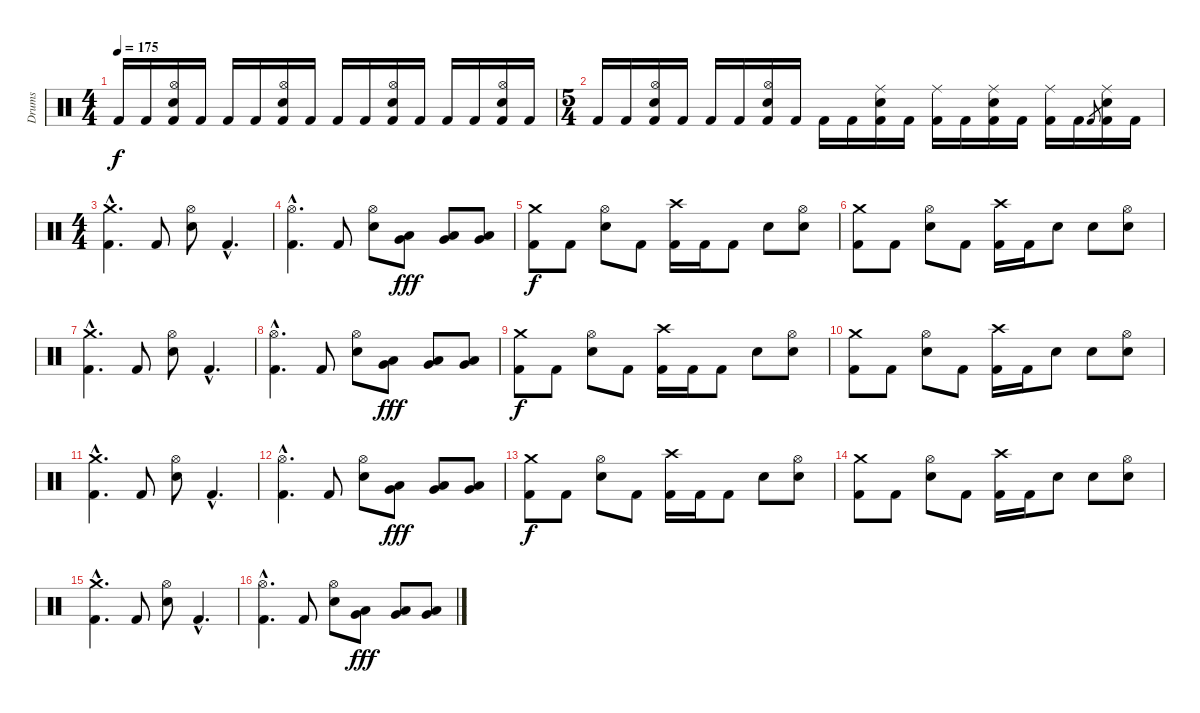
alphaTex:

\track ("Drums" "Drums") {instrument percussion}
\staff {score}
\articulation defaults
\ts (4 4)
\tempo 175
\clef neutral
\ks c "Kick (hit) 2".16{dy f} "Kick (hit) 2".16
("Hi-Hat (open)" "Electric Snare (hit)" "Kick (hit) 2").16 "Kick (hit) 2".16 "Kick (hit) 2".16 "Kick (hit) 2".16 ("Hi-Hat (open)" "Electric Snare (hit)" "Kick (hit) 2").16 "Kick (hit) 2".16 "Kick (hit) 2".16 "Kick (hit) 2".16 ("Hi-Hat (open)" "Electric Snare (hit)" "Kick (hit) 2").16 "Kick (hit) 2".16 "Kick (hit) 2".16 "Kick (hit) 2".16 ("Hi-Hat (open)" "Electric Snare (hit)" "Kick (hit) 2").16 "Kick (hit) 2".16 |
\ts (5 4)
"Kick (hit) 2".16 "Kick (hit) 2".16 ("Hi-Hat (open)" "Electric Snare (hit)" "Kick (hit) 2").16 "Kick (hit) 2".16 "Kick (hit) 2".16 "Kick (hit) 2".16 ("Hi-Hat (open)" "Electric Snare (hit)" "Kick (hit) 2").16 "Kick (hit) 2".16 "Kick (hit) 2".16 "Kick (hit) 2".16 ("Ride (middle)" "Electric Snare (hit)" "Kick (hit) 2").16 "Kick (hit) 2".16 ("Ride (middle)" "Kick (hit) 2").16 "Kick (hit) 2".16 ("Ride (middle)" "Electric Snare (hit)" "Kick (hit) 2").16 "Kick (hit) 2".16 ("Ride (middle)" "Kick (hit) 2").16 "Kick (hit) 2".16 "Kick (hit) 2".8{gr} ("Ride (middle)" "Electric Snare (hit)" "Kick (hit) 2").16 "Kick (hit) 2".16 |
\ts (4 4)
("Kick (hit) 2"{hac} "Crash medium (hit)"{hac}).4{d} "Kick (hit) 2".8 ("Electric Snare (hit)" "Hi-Hat (open)").8 "Kick (hit) 2"{hac}.4{d} |
("Kick (hit) 2"{hac} "Hi-Hat (open)"{hac}).4{d} "Kick (hit) 2".8 ("Electric Snare (hit)" "Hi-Hat (open)").8 ("Low Tom (hit)" "Very Low Tom (hit)").8{dy fff} ("Low Tom (hit)" "Very Low Tom (hit)").8 ("Low Tom (hit)" "Very Low Tom (hit)").8 |
("Kick (hit) 2" "Crash medium (hit)").8{dy f} "Kick (hit) 2".8 ("Electric Snare (hit)" "Hi-Hat (open)").8 "Kick (hit) 2".8 ("Kick (hit) 2" "Crash high (hit)").16 "Kick (hit) 2".16 "Kick (hit) 2".8 "Electric Snare (hit)".8 ("Electric Snare (hit)" "Hi-Hat (open)").8 |
("Kick (hit) 2" "Crash medium (hit)").8 "Kick (hit) 2".8 ("Electric Snare (hit)" "Hi-Hat (open)").8 "Kick (hit) 2".8 ("Kick (hit) 2" "Crash high (hit)").16 "Kick (hit) 2".16 "Electric Snare (hit)".8 "Snare (hit) 2".8 ("Snare (hit) 2" "Hi-Hat (open)").8 |
("Kick (hit) 2"{hac} "Crash medium (hit)"{hac}).4{d} "Kick (hit) 2".8 ("Electric Snare (hit)" "Hi-Hat (open)").8 "Kick (hit) 2"{hac}.4{d} |
("Kick (hit) 2"{hac} "Hi-Hat (open)"{hac}).4{d} "Kick (hit) 2".8 ("Electric Snare (hit)" "Hi-Hat (open)").8 ("Low Tom (hit)" "Very Low Tom (hit)").8{dy fff} ("Low Tom (hit)" "Very Low Tom (hit)").8 ("Low Tom (hit)" "Very Low Tom (hit)").8 |
("Kick (hit) 2" "Crash medium (hit)").8{dy f} "Kick (hit) 2".8 ("Electric Snare (hit)" "Hi-Hat (open)").8 "Kick (hit) 2".8 ("Kick (hit) 2" "Crash high (hit)").16 "Kick (hit) 2".16 "Kick (hit) 2".8 "Electric Snare (hit)".8 ("Electric Snare (hit)" "Hi-Hat (open)").8 |
("Kick (hit) 2" "Crash medium (hit)").8 "Kick (hit) 2".8 ("Electric Snare (hit)" "Hi-Hat (open)").8 "Kick (hit) 2".8 ("Kick (hit) 2" "Crash high (hit)").16 "Kick (hit) 2".16 "Electric Snare (hit)".8 "Snare (hit) 2".8 ("Snare (hit) 2" "Hi-Hat (open)").8 |
("Kick (hit) 2"{hac} "Crash medium (hit)"{hac}).4{d} "Kick (hit) 2".8 ("Electric Snare (hit)" "Hi-Hat (open)").8 "Kick (hit) 2"{hac}.4{d} |
("Kick (hit) 2"{hac} "Hi-Hat (open)"{hac}).4{d} "Kick (hit) 2".8 ("Electric Snare (hit)" "Hi-Hat (open)").8 ("Low Tom (hit)" "Very Low Tom (hit)").8{dy fff} ("Low Tom (hit)" "Very Low Tom (hit)").8 ("Low Tom (hit)" "Very Low Tom (hit)").8 |
("Kick (hit) 2" "Crash medium (hit)").8{dy f} "Kick (hit) 2".8 ("Electric Snare (hit)" "Hi-Hat (open)").8 "Kick (hit) 2".8 ("Kick (hit) 2" "Crash high (hit)").16 "Kick (hit) 2".16 "Kick (hit) 2".8 "Electric Snare (hit)".8 ("Electric Snare (hit)" "Hi-Hat (open)").8 |
("Kick (hit) 2" "Crash medium (hit)").8 "Kick (hit) 2".8 ("Electric Snare (hit)" "Hi-Hat (open)").8 "Kick (hit) 2".8 ("Kick (hit) 2" "Crash high (hit)").16 "Kick (hit) 2".16 "Electric Snare (hit)".8 "Snare (hit) 2".8 ("Snare (hit) 2" "Hi-Hat (open)").8 |
("Kick (hit) 2"{hac} "Crash medium (hit)"{hac}).4{d} "Kick (hit) 2".8 ("Electric Snare (hit)" "Hi-Hat (open)").8 "Kick (hit) 2"{hac}.4{d} |
("Kick (hit) 2"{hac} "Hi-Hat (open)"{hac}).4{d} "Kick (hit) 2".8 ("Electric Snare (hit)" "Hi-Hat (open)").8 ("Low Tom (hit)" "Very Low Tom (hit)").8{dy fff} ("Low Tom (hit)" "Very Low Tom (hit)").8 ("Low Tom (hit)" "Very Low Tom (hit)").8
